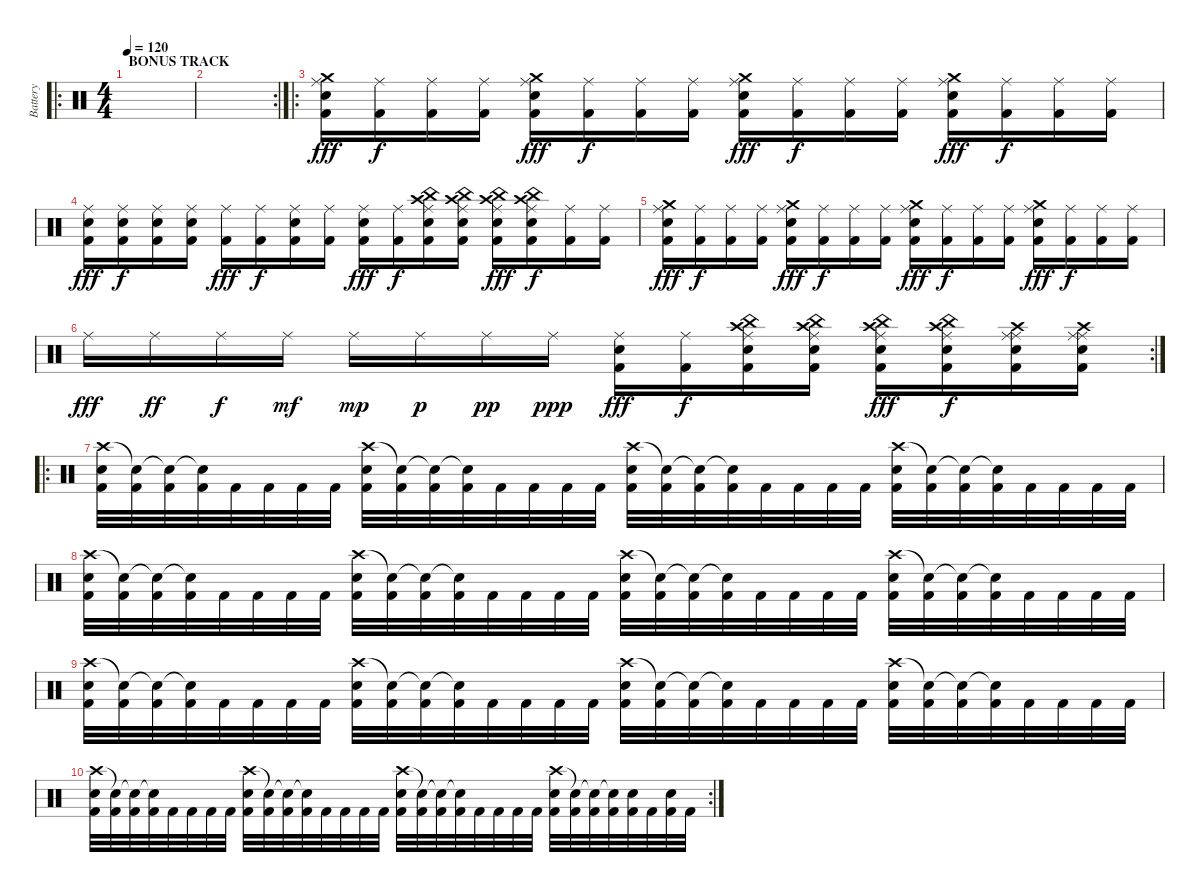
\track ("Battery" "Battery") {instrument percussion}
\staff {score}
\articulation defaults
\ro
\ts (4 4)
\section ("" "BONUS TRACK ")
\tempo 120
\clef neutral
\ks c
|
\rc 2
|
\ro
("Crash medium (hit)" "Ride (middle)" "Electric Snare (hit)" "Kick (hit) 2").16{dy fff} ("Ride (middle)" "Kick (hit) 2").16{dy f} ("Ride (middle)" "Kick (hit) 2").16 ("Ride (middle)" "Kick (hit) 2").16 ("Crash medium (hit)" "Ride (middle)" "Electric Snare (hit)" "Kick (hit) 2").16{dy fff} ("Ride (middle)" "Kick (hit) 2").16{dy f} ("Ride (middle)" "Kick (hit) 2").16 ("Ride (middle)" "Kick (hit) 2").16 ("Crash medium (hit)" "Ride (middle)" "Electric Snare (hit)" "Kick (hit) 2").16{dy fff} ("Ride (middle)" "Kick (hit) 2").16{dy f} ("Ride (middle)" "Kick (hit) 2").16 ("Ride (middle)" "Kick (hit) 2").16 ("Crash medium (hit)" "Ride (middle)" "Electric Snare (hit)" "Kick (hit) 2").16{dy fff} ("Ride (middle)" "Kick (hit) 2").16{dy f} ("Ride (middle)" "Kick (hit) 2").16 ("Ride (middle)" "Kick (hit) 2").16 |
("Ride (middle)" "Electric Snare (hit)" "Kick (hit) 2").16{dy fff} ("Ride (middle)" "Electric Snare (hit)" "Kick (hit) 2").16{dy f} ("Ride (middle)" "Electric Snare (hit)" "Kick (hit) 2").16 ("Ride (middle)" "Electric Snare (hit)" "Kick (hit) 2").16 ("Ride (middle)" "Kick (hit) 2").16{dy fff} ("Ride (middle)" "Kick (hit) 2").16{dy f} ("Ride (middle)" "Electric Snare (hit)" "Kick (hit) 2").16 ("Ride (middle)" "Kick (hit) 2").16 ("Ride (middle)" "Electric Snare (hit)" "Kick (hit) 2").16{dy fff} ("Ride (middle)" "Kick (hit) 2").16{dy f} ("Crash high (hit)" "Ride (middle)" "China (hit)" "Electric Snare (hit)" "Kick (hit) 2").16 ("Crash high (hit)" "Ride (middle)" "China (hit)" "Electric Snare (hit)" "Kick (hit) 2").16 ("Crash high (hit)" "Ride (middle)" "China (hit)" "Electric Snare (hit)" "Kick (hit) 2").16{dy fff} ("Crash high (hit)" "Ride (middle)" "China (hit)" "Electric Snare (hit)" "Kick (hit) 2").16{dy f} ("Ride (middle)" "Kick (hit) 2").16 ("Ride (middle)" "Kick (hit) 2").16 |
("Crash medium (hit)" "Ride (middle)" "Electric Snare (hit)" "Kick (hit) 2").16{dy fff} ("Ride (middle)" "Kick (hit) 2").16{dy f} ("Ride (middle)" "Kick (hit) 2").16 ("Ride (middle)" "Kick (hit) 2").16 ("Crash medium (hit)" "Ride (middle)" "Electric Snare (hit)" "Kick (hit) 2").16{dy fff} ("Ride (middle)" "Kick (hit) 2").16{dy f} ("Ride (middle)" "Kick (hit) 2").16 ("Ride (middle)" "Kick (hit) 2").16 ("Crash medium (hit)" "Ride (middle)" "Electric Snare (hit)" "Kick (hit) 2").16{dy fff} ("Ride (middle)" "Kick (hit) 2").16{dy f} ("Ride (middle)" "Kick (hit) 2").16 ("Ride (middle)" "Kick (hit) 2").16 ("Crash medium (hit)" "Ride (middle)" "Electric Snare (hit)" "Kick (hit) 2").16{dy fff} ("Ride (middle)" "Kick (hit) 2").16{dy f} ("Ride (middle)" "Kick (hit) 2").16 ("Ride (middle)" "Kick (hit) 2").16 |
\rc 2 "Ride (middle)".16{dy fff} "Ride (middle)".16{dy ff} "Ride (middle)".16{dy f} "Ride (middle)".16{dy mf} "Ride (middle)".16{dy mp} "Ride (middle)".16{dy p} "Ride (middle)".16{dy pp} "Ride (middle)".16{dy ppp}
("Ride (middle)" "Electric Snare (hit)" "Kick (hit) 2").16{dy fff} ("Ride (middle)" "Kick (hit) 2").16{dy f} ("Crash high (hit)" "Ride (middle)" "China (hit)" "Electric Snare (hit)" "Kick (hit) 2").16 ("Crash high (hit)" "Ride (middle)" "China (hit)" "Electric Snare (hit)" "Kick (hit) 2").16 ("Crash high (hit)" "Ride (middle)" "China (hit)" "Electric Snare (hit)" "Kick (hit) 2").16{dy fff} ("Crash high (hit)" "Ride (middle)" "China (hit)" "Electric Snare (hit)" "Kick (hit) 2").16{dy f} ("Crash high (hit)" "Ride (middle)" "Ride (middle)" "Electric Snare (hit)" "Kick (hit) 2").16 ("Crash high (hit)" "Ride (middle)" "Ride (middle)" "Electric Snare (hit)" "Kick (hit) 2").16 |
\ro
("Crash high (hit)" "Electric Snare (hit)" "Kick (hit) 2").32 ("Snare (hit)"{t} "Kick (hit) 2").32 ("Snare (hit)"{t} "Kick (hit) 2").32 ("Snare (hit)"{t} "Kick (hit) 2").32 "Kick (hit) 2".32 "Kick (hit) 2".32 "Kick (hit) 2".32 "Kick (hit) 2".32 ("Crash high (hit)" "Electric Snare (hit)" "Kick (hit) 2").32 ("Snare (hit)"{t} "Kick (hit) 2").32 ("Snare (hit)"{t} "Kick (hit) 2").32 ("Snare (hit)"{t} "Kick (hit) 2").32 "Kick (hit) 2".32 "Kick (hit) 2".32 "Kick (hit) 2".32 "Kick (hit) 2".32 ("Crash high (hit)" "Electric Snare (hit)" "Kick (hit) 2").32 ("Snare (hit)"{t} "Kick (hit) 2").32 ("Snare (hit)"{t} "Kick (hit) 2").32 ("Snare (hit)"{t} "Kick (hit) 2").32 "Kick (hit) 2".32 "Kick (hit) 2".32 "Kick (hit) 2".32 "Kick (hit) 2".32 ("Crash high (hit)" "Electric Snare (hit)" "Kick (hit) 2").32 ("Snare (hit)"{t} "Kick (hit) 2").32 ("Snare (hit)"{t} "Kick (hit) 2").32 ("Snare (hit)"{t} "Kick (hit) 2").32 "Kick (hit) 2".32 "Kick (hit) 2".32 "Kick (hit) 2".32 "Kick (hit) 2".32 |
("Crash high (hit)" "Electric Snare (hit)" "Kick (hit) 2").32 ("Snare (hit)"{t} "Kick (hit) 2").32 ("Snare (hit)"{t} "Kick (hit) 2").32 ("Snare (hit)"{t} "Kick (hit) 2").32 "Kick (hit) 2".32 "Kick (hit) 2".32 "Kick (hit) 2".32 "Kick (hit) 2".32 ("Crash high (hit)" "Electric Snare (hit)" "Kick (hit) 2").32 ("Snare (hit)"{t} "Kick (hit) 2").32 ("Snare (hit)"{t} "Kick (hit) 2").32 ("Snare (hit)"{t} "Kick (hit) 2").32 "Kick (hit) 2".32 "Kick (hit) 2".32 "Kick (hit) 2".32 "Kick (hit) 2".32 ("Crash high (hit)" "Electric Snare (hit)" "Kick (hit) 2").32 ("Snare (hit)"{t} "Kick (hit) 2").32 ("Snare (hit)"{t} "Kick (hit) 2").32 ("Snare (hit)"{t} "Kick (hit) 2").32 "Kick (hit) 2".32 "Kick (hit) 2".32 "Kick (hit) 2".32 "Kick (hit) 2".32 ("Crash high (hit)" "Electric Snare (hit)" "Kick (hit) 2").32 ("Snare (hit)"{t} "Kick (hit) 2").32 ("Snare (hit)"{t} "Kick (hit) 2").32 ("Snare (hit)"{t} "Kick (hit) 2").32 "Kick (hit) 2".32 "Kick (hit) 2".32 "Kick (hit) 2".32 "Kick (hit) 2".32 |
("Crash high (hit)" "Electric Snare (hit)" "Kick (hit) 2").32 ("Snare (hit)"{t} "Kick (hit) 2").32 ("Snare (hit)"{t} "Kick (hit) 2").32 ("Snare (hit)"{t} "Kick (hit) 2").32 "Kick (hit) 2".32 "Kick (hit) 2".32 "Kick (hit) 2".32 "Kick (hit) 2".32 ("Crash high (hit)" "Electric Snare (hit)" "Kick (hit) 2").32 ("Snare (hit)"{t} "Kick (hit) 2").32 ("Snare (hit)"{t} "Kick (hit) 2").32 ("Snare (hit)"{t} "Kick (hit) 2").32 "Kick (hit) 2".32 "Kick (hit) 2".32 "Kick (hit) 2".32 "Kick (hit) 2".32 ("Crash high (hit)" "Electric Snare (hit)" "Kick (hit) 2").32 ("Snare (hit)"{t} "Kick (hit) 2").32 ("Snare (hit)"{t} "Kick (hit) 2").32 ("Snare (hit)"{t} "Kick (hit) 2").32 "Kick (hit) 2".32 "Kick (hit) 2".32 "Kick (hit) 2".32 "Kick (hit) 2".32 ("Crash high (hit)" "Electric Snare (hit)" "Kick (hit) 2").32 ("Snare (hit)"{t} "Kick (hit) 2").32 ("Snare (hit)"{t} "Kick (hit) 2").32 ("Snare (hit)"{t} "Kick (hit) 2").32 "Kick (hit) 2".32 "Kick (hit) 2".32 "Kick (hit) 2".32 "Kick (hit) 2".32 |
\rc 2
("Crash high (hit)" "Electric Snare (hit)" "Kick (hit) 2").32 ("Snare (hit)"{t} "Kick (hit) 2").32 ("Snare (hit)"{t} "Kick (hit) 2").32 ("Snare (hit)"{t} "Kick (hit) 2").32 "Kick (hit) 2".32 "Kick (hit) 2".32 "Kick (hit) 2".32 "Kick (hit) 2".32 ("Crash high (hit)" "Electric Snare (hit)" "Kick (hit) 2").32 ("Snare (hit)"{t} "Kick (hit) 2").32 ("Snare (hit)"{t} "Kick (hit) 2").32 ("Snare (hit)"{t} "Kick (hit) 2").32 "Kick (hit) 2".32 "Kick (hit) 2".32 "Kick (hit) 2".32 "Kick (hit) 2".32 ("Crash high (hit)" "Electric Snare (hit)" "Kick (hit) 2").32 ("Snare (hit)"{t} "Kick (hit) 2").32 ("Snare (hit)"{t} "Kick (hit) 2").32 ("Snare (hit)"{t} "Kick (hit) 2").32 "Kick (hit) 2".32 "Kick (hit) 2".32 "Kick (hit) 2".32 "Kick (hit) 2".32 ("Crash high (hit)" "Electric Snare (hit)" "Kick (hit) 2").32 ("Snare (hit)"{t} "Kick (hit) 2").32 ("Snare (hit)"{t} "Kick (hit) 2").32 ("Snare (hit)"{t} "Kick (hit) 2").32 ("Electric Snare (hit)" "Kick (hit) 2").32 "Kick (hit) 2".32 ("Electric Snare (hit)" "Kick (hit) 2").32 "Kick (hit) 2".32
